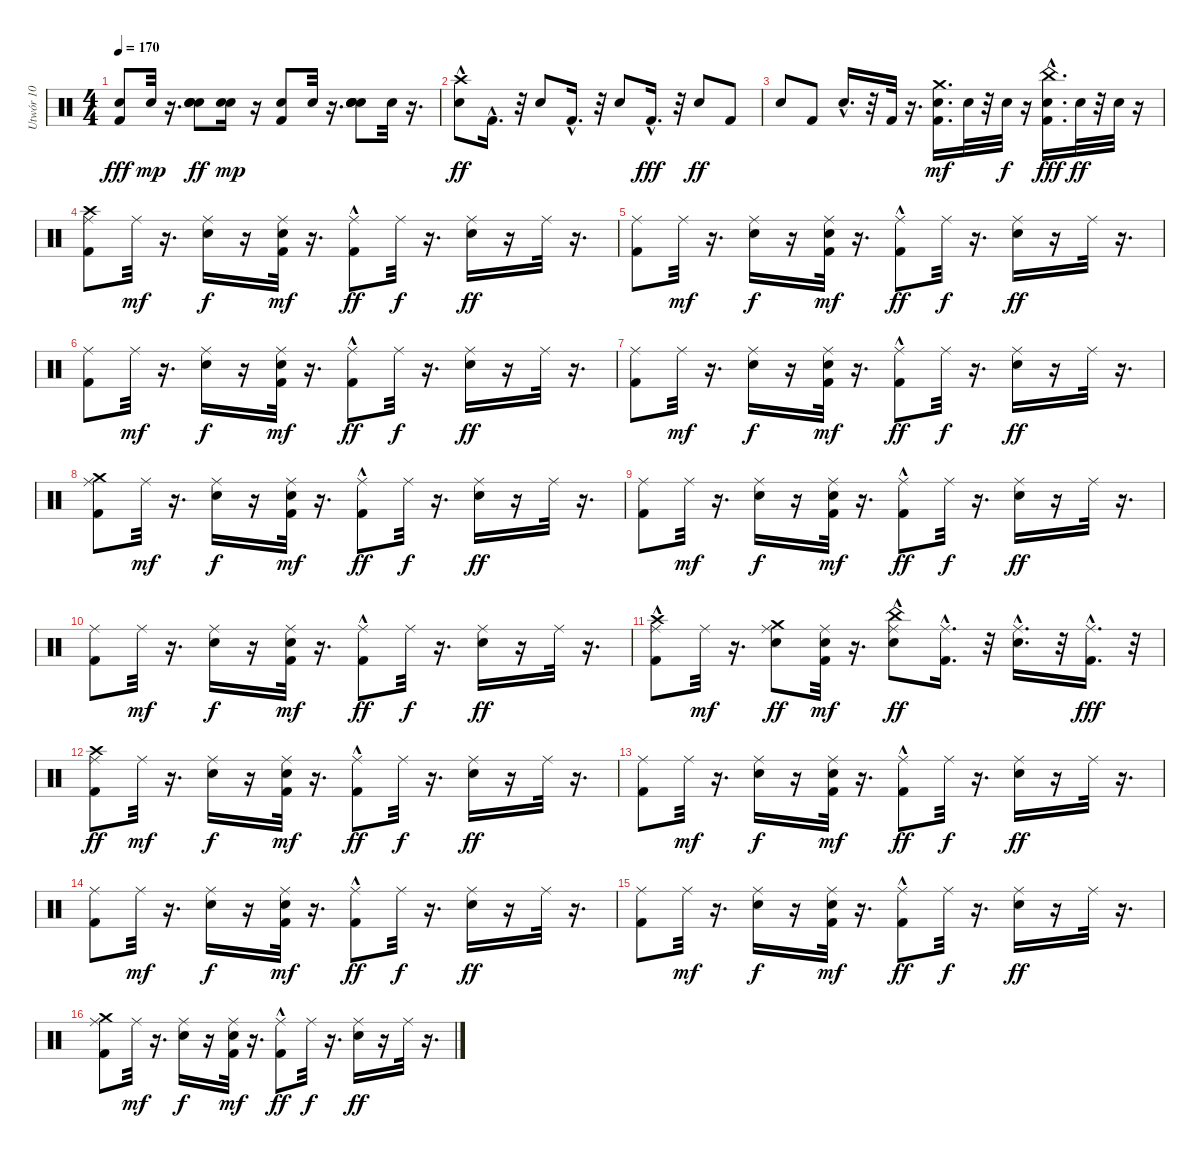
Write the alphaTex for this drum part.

\track ("Utwór 10" "Utwór 10") {instrument percussion}
\staff {score}
\articulation defaults
\ts (4 4)
\tempo 170
\clef neutral
\ks c
("Snare (hit) 2" "Kick (hit) 2").8{dy fff} "Snare (hit) 2".32{dy mp} r.16{d} ("Snare (hit) 2" "Snare (hit) 2" "Hand Clap (hit)" "Snare (hit) 2").8{dy ff} ("Hand Clap (hit)" "Snare (hit) 2").16{dy mp} r.16 ("Kick (hit) 2" "Snare (hit) 2").8 "Snare (hit) 2".32 r.16{d} ("Snare (hit) 2" "Hand Clap (hit)" "Snare (hit) 2" "Snare (hit) 2").8 "Snare (hit) 2".32 r.16{d} |
("Crash high (hit)"{hac} "Snare (hit) 2").8{dy ff} "Kick (hit) 2"{hac}.16{d} r.32 "Snare (hit) 2".8 "Kick (hit) 2"{hac}.16{d} r.32 "Snare (hit) 2".8 "Kick (hit) 2"{hac}.16{d dy fff} r.32 "Snare (hit) 2".8{dy ff} "Kick (hit) 2".8 |
"Snare (hit) 2".8 "Kick (hit) 2".8 "Snare (hit) 2"{hac}.16{d} r.32 "Kick (hit) 2".32 r.16{d} ("Crash medium (hit)" "Kick (hit) 2" "Snare (hit) 2").16{d dy mf} "Snare (hit) 2".32 r.32 "Snare (hit) 2".32{dy f} r.16 ("China (hit)"{hac} "Kick (hit) 2" "Snare (hit) 2").16{d dy fff} "Snare (hit) 2".32{dy ff} r.32 "Snare (hit) 2".32 r.16 |
("Kick (hit) 2" "Ride (middle)" "Crash high (hit)").8 "Ride (middle)".32{dy mf} r.16{d} ("Snare (hit) 2" "Ride (middle)").16{dy f} r.16 ("Snare (hit) 2" "Kick (hit) 2" "Ride (middle)").32{dy mf} r.16{d} ("Ride (middle)" "Kick (hit) 2"{hac}).8{dy ff} "Ride (middle)".32{dy f} r.16{d} ("Ride (middle)" "Snare (hit) 2").16{dy ff} r.16 "Ride (middle)".32 r.16{d} |
("Ride (middle)" "Kick (hit) 2").8 "Ride (middle)".32{dy mf} r.16{d} ("Ride (middle)" "Snare (hit) 2").16{dy f} r.16 ("Ride (middle)" "Kick (hit) 2" "Snare (hit) 2").32{dy mf} r.16{d} ("Ride (middle)" "Kick (hit) 2"{hac}).8{dy ff} "Ride (middle)".32{dy f} r.16{d} ("Ride (middle)" "Snare (hit) 2").16{dy ff} r.16 "Ride (middle)".32 r.16{d} |
("Kick (hit) 2" "Ride (middle)").8 "Ride (middle)".32{dy mf} r.16{d} ("Snare (hit) 2" "Ride (middle)").16{dy f} r.16 ("Ride (middle)" "Snare (hit) 2" "Kick (hit) 2").32{dy mf} r.16{d} ("Kick (hit) 2"{hac} "Ride (middle)").8{dy ff} "Ride (middle)".32{dy f} r.16{d} ("Ride (middle)" "Snare (hit) 2").16{dy ff} r.16 "Ride (middle)".32 r.16{d} |
("Ride (middle)" "Kick (hit) 2").8 "Ride (middle)".32{dy mf} r.16{d} ("Ride (middle)" "Snare (hit) 2").16{dy f} r.16 ("Kick (hit) 2" "Snare (hit) 2" "Ride (middle)").32{dy mf} r.16{d} ("Kick (hit) 2"{hac} "Ride (middle)").8{dy ff} "Ride (middle)".32{dy f} r.16{d} ("Snare (hit) 2" "Ride (middle)").16{dy ff} r.16 "Ride (middle)".32 r.16{d} |
("Kick (hit) 2" "Crash medium (hit)" "Ride (middle)").8 "Ride (middle)".32{dy mf} r.16{d} ("Ride (middle)" "Snare (hit) 2").16{dy f} r.16 ("Ride (middle)" "Kick (hit) 2" "Snare (hit) 2").32{dy mf} r.16{d} ("Kick (hit) 2"{hac} "Ride (middle)").8{dy ff} "Ride (middle)".32{dy f} r.16{d} ("Snare (hit) 2" "Ride (middle)").16{dy ff} r.16 "Ride (middle)".32 r.16{d} |
("Ride (middle)" "Kick (hit) 2").8 "Ride (middle)".32{dy mf} r.16{d} ("Snare (hit) 2" "Ride (middle)").16{dy f} r.16 ("Kick (hit) 2" "Snare (hit) 2" "Ride (middle)").32{dy mf} r.16{d} ("Kick (hit) 2"{hac} "Ride (middle)").8{dy ff} "Ride (middle)".32{dy f} r.16{d} ("Snare (hit) 2" "Ride (middle)").16{dy ff} r.16 "Ride (middle)".32 r.16{d} |
("Ride (middle)" "Kick (hit) 2").8 "Ride (middle)".32{dy mf} r.16{d} ("Snare (hit) 2" "Ride (middle)").16{dy f} r.16 ("Kick (hit) 2" "Snare (hit) 2" "Ride (middle)").32{dy mf} r.16{d} ("Ride (middle)" "Kick (hit) 2"{hac}).8{dy ff} "Ride (middle)".32{dy f} r.16{d} ("Snare (hit) 2" "Ride (middle)").16{dy ff} r.16 "Ride (middle)".32 r.16{d} |
("Crash high (hit)"{hac} "Ride (middle)" "Kick (hit) 2").8 "Ride (middle)".32{dy mf} r.16{d} ("Crash medium (hit)" "Ride (middle)" "Snare (hit) 2").8{dy ff} ("Snare (hit) 2" "Ride (middle)" "Kick (hit) 2").32{dy mf} r.16{d} ("Ride (middle)" "China (hit)"{hac} "Snare (hit) 2").8{dy ff} ("Kick (hit) 2"{hac} "Ride (middle)").16{d} r.32 ("Ride (middle)" "Snare (hit) 2"{hac}).16{d} r.32 ("Ride (middle)" "Kick (hit) 2"{hac}).16{d dy fff} r.32 |
("Ride (middle)" "Crash high (hit)" "Kick (hit) 2").8{dy ff} "Ride (middle)".32{dy mf} r.16{d} ("Snare (hit) 2" "Ride (middle)").16{dy f} r.16 ("Ride (middle)" "Kick (hit) 2" "Snare (hit) 2").32{dy mf} r.16{d} ("Kick (hit) 2"{hac} "Ride (middle)").8{dy ff} "Ride (middle)".32{dy f} r.16{d} ("Ride (middle)" "Snare (hit) 2").16{dy ff} r.16 "Ride (middle)".32 r.16{d} |
("Ride (middle)" "Kick (hit) 2").8 "Ride (middle)".32{dy mf} r.16{d} ("Ride (middle)" "Snare (hit) 2").16{dy f} r.16 ("Snare (hit) 2" "Kick (hit) 2" "Ride (middle)").32{dy mf} r.16{d} ("Ride (middle)" "Kick (hit) 2"{hac}).8{dy ff} "Ride (middle)".32{dy f} r.16{d} ("Ride (middle)" "Snare (hit) 2").16{dy ff} r.16 "Ride (middle)".32 r.16{d} |
("Kick (hit) 2" "Ride (middle)").8 "Ride (middle)".32{dy mf} r.16{d} ("Snare (hit) 2" "Ride (middle)").16{dy f} r.16 ("Kick (hit) 2" "Ride (middle)" "Snare (hit) 2").32{dy mf} r.16{d} ("Kick (hit) 2"{hac} "Ride (middle)").8{dy ff} "Ride (middle)".32{dy f} r.16{d} ("Ride (middle)" "Snare (hit) 2").16{dy ff} r.16 "Ride (middle)".32 r.16{d} |
("Kick (hit) 2" "Ride (middle)").8 "Ride (middle)".32{dy mf} r.16{d} ("Ride (middle)" "Snare (hit) 2").16{dy f} r.16 ("Ride (middle)" "Snare (hit) 2" "Kick (hit) 2").32{dy mf} r.16{d} ("Kick (hit) 2"{hac} "Ride (middle)").8{dy ff} "Ride (middle)".32{dy f} r.16{d} ("Ride (middle)" "Snare (hit) 2").16{dy ff} r.16 "Ride (middle)".32 r.16{d} |
("Ride (middle)" "Kick (hit) 2" "Crash medium (hit)").8 "Ride (middle)".32{dy mf} r.16{d} ("Snare (hit) 2" "Ride (middle)").16{dy f} r.16 ("Snare (hit) 2" "Ride (middle)" "Kick (hit) 2").32{dy mf} r.16{d} ("Ride (middle)" "Kick (hit) 2"{hac}).8{dy ff} "Ride (middle)".32{dy f} r.16{d} ("Ride (middle)" "Snare (hit) 2").16{dy ff} r.16 "Ride (middle)".32 r.16{d}
